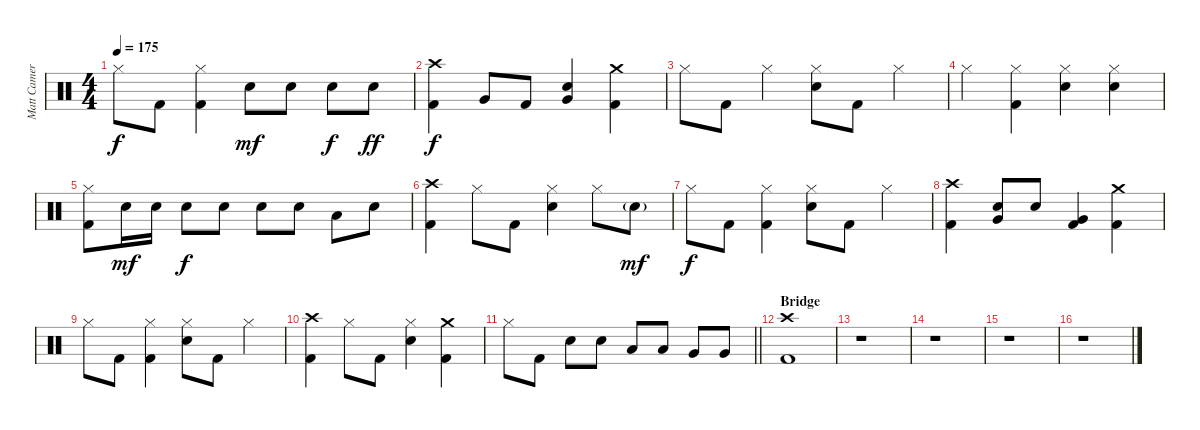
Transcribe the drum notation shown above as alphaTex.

\track ("Matt Cameron Drum" "Matt Camer") {instrument percussion}
\staff {score}
\articulation defaults
\ts (4 4)
\tempo 175
\clef neutral
\ks c "Hi-Hat (closed)".8{dy f} "Kick (hit) 2".8
("Hi-Hat (closed)" "Kick (hit) 2").4 "Electric Snare (hit)".8{dy mf} "Electric Snare (hit)".8 "Electric Snare (hit)".8{dy f} "Electric Snare (hit)".8{dy ff} |
("Crash high (hit)" "Kick (hit) 2").4{dy f} "Very Low Tom (hit)".8 "Kick (hit) 2".8 ("Very Low Tom (hit)" "Electric Snare (hit)").4 ("Crash medium (hit)" "Kick (hit) 2").4 |
"Hi-Hat (closed)".8 "Kick (hit) 2".8 "Hi-Hat (closed)".4 ("Hi-Hat (closed)" "Electric Snare (hit)").8 "Kick (hit) 2".8 "Hi-Hat (closed)".4 |
"Hi-Hat (closed)".4 ("Hi-Hat (closed)" "Kick (hit) 2").4 ("Hi-Hat (closed)" "Electric Snare (hit)").4 ("Hi-Hat (closed)" "Electric Snare (hit)").4 |
("Hi-Hat (closed)" "Kick (hit) 2").8 "Electric Snare (hit)".16{dy mf} "Electric Snare (hit)".16 "Electric Snare (hit)".8{dy f} "Electric Snare (hit)".8 "Electric Snare (hit)".8 "Electric Snare (hit)".8 "Low Tom (hit)".8 "Electric Snare (hit)".8 |
("Crash high (hit)" "Kick (hit) 2").4 "Hi-Hat (closed)".8 "Kick (hit) 2".8 ("Hi-Hat (closed)" "Electric Snare (hit)").4 "Hi-Hat (closed)".8 "Electric Snare (hit)"{g}.8{dy mf} |
"Hi-Hat (closed)".8{dy f} "Kick (hit) 2".8 ("Hi-Hat (closed)" "Kick (hit) 2").4 ("Hi-Hat (closed)" "Electric Snare (hit)").8 "Kick (hit) 2".8 "Hi-Hat (closed)".4 |
("Crash high (hit)" "Kick (hit) 2").4 ("Very Low Tom (hit)" "Electric Snare (hit)").8 "Electric Snare (hit)".8 ("Very Low Tom (hit)" "Kick (hit) 2").4 ("Crash medium (hit)" "Kick (hit) 2").4 |
"Hi-Hat (closed)".8 "Kick (hit) 2".8 ("Hi-Hat (closed)" "Kick (hit) 2").4 ("Hi-Hat (closed)" "Electric Snare (hit)").8 "Kick (hit) 2".8 "Hi-Hat (closed)".4 |
("Crash high (hit)" "Kick (hit) 2").4 "Hi-Hat (closed)".8 "Kick (hit) 2".8 ("Hi-Hat (closed)" "Electric Snare (hit)").4 ("Crash medium (hit)" "Kick (hit) 2").4 |
\barLineRight lightlight "Hi-Hat (closed)".8 "Kick (hit) 2".8 "Electric Snare (hit)".8 "Electric Snare (hit)".8 "Low Tom (hit)".8 "Low Tom (hit)".8 "Very Low Tom (hit)".8 "Very Low Tom (hit)".8
|
\section ("" "Bridge")
("Crash high (hit)" "Kick (hit) 2").1 |
r.1 |
r.1 |
r.1 |
r.1
